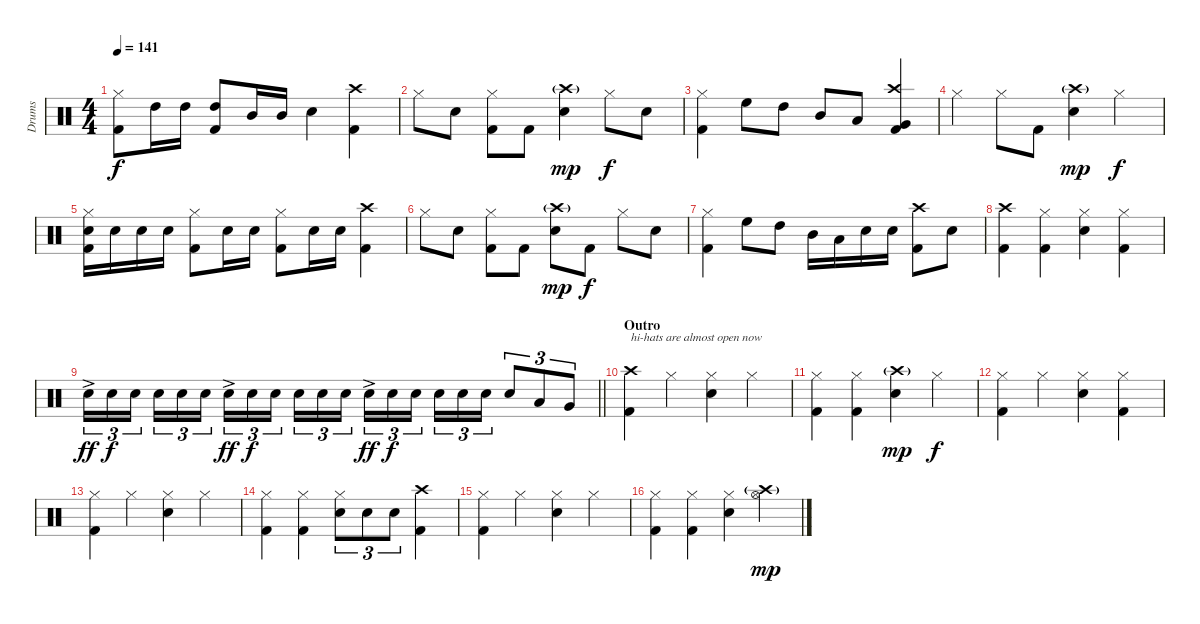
\track ("Drums" "Drums") {instrument percussion}
\staff {score}
\articulation defaults
\ts (4 4)
\tempo 141
\clef neutral
\ks c
("Hi-Hat (closed)" "Kick (hit) 2").8{dy f} "High Tom (hit)".16 "High Tom (hit)".16 ("High Tom (hit)" "Kick (hit) 2").8 "Mid Tom (hit)".16 "Mid Tom (hit)".16 "Electric Snare (hit)".4 ("Crash high (hit)" "Kick (hit) 2").4 |
"Hi-Hat (closed)".8 "Electric Snare (hit)".8 ("Hi-Hat (closed)" "Kick (hit) 2").8 "Kick (hit) 2".8 ("Crash high (hit)"{g} "Electric Snare (hit)").4{dy mp} "Hi-Hat (closed)".8{dy f} "Electric Snare (hit)".8 |
("Hi-Hat (closed)" "Kick (hit) 2").4 "High Floor Tom (hit)".8 "High Tom (hit)".8 "Mid Tom (hit)".8 "Low Tom (hit)".8 ("Crash high (hit)" "Very Low Tom (hit)" "Kick (hit) 2").4 |
"Hi-Hat (closed)".4 "Hi-Hat (closed)".8 "Kick (hit) 2".8 ("Crash high (hit)"{g} "Electric Snare (hit)").4{dy mp} "Hi-Hat (closed)".4{dy f} |
("Hi-Hat (closed)" "Electric Snare (hit)" "Kick (hit) 2").16 "Electric Snare (hit)".16 "Electric Snare (hit)".16 "Electric Snare (hit)".16 ("Hi-Hat (closed)" "Kick (hit) 2").8 "Electric Snare (hit)".16 "Electric Snare (hit)".16 ("Hi-Hat (closed)" "Kick (hit) 2").8 "Electric Snare (hit)".16 "Electric Snare (hit)".16 ("Crash high (hit)" "Kick (hit) 2").4 |
"Hi-Hat (closed)".8 "Electric Snare (hit)".8 ("Hi-Hat (closed)" "Kick (hit) 2").8 "Kick (hit) 2".8 ("Crash high (hit)"{g} "Electric Snare (hit)").8{dy mp} "Kick (hit) 2".8{dy f} "Hi-Hat (closed)".8 "Electric Snare (hit)".8 |
("Hi-Hat (closed)" "Kick (hit) 2").4 "High Floor Tom (hit)".8 "High Tom (hit)".8 "Mid Tom (hit)".16 "Low Tom (hit)".16 "Electric Snare (hit)".16 "Electric Snare (hit)".16 ("Crash high (hit)" "Kick (hit) 2").8 "Electric Snare (hit)".8 |
("Crash high (hit)" "Kick (hit) 2").4 ("Hi-Hat (closed)" "Kick (hit) 2").4 ("Hi-Hat (closed)" "Electric Snare (hit)").4 ("Hi-Hat (closed)" "Kick (hit) 2").4 |
\barLineRight lightlight "Electric Snare (hit)"{ac}.16{tu (3 2) dy ff} "Electric Snare (hit)".16{tu (3 2) dy f} "Electric Snare (hit)".16{tu (3 2) beam splitsecondary} "Electric Snare (hit)".16{tu (3 2)} "Electric Snare (hit)".16{tu (3 2)} "Electric Snare (hit)".16{tu (3 2)} "Electric Snare (hit)"{ac}.16{tu (3 2) dy ff} "Electric Snare (hit)".16{tu (3 2) dy f} "Electric Snare (hit)".16{tu (3 2) beam splitsecondary} "Electric Snare (hit)".16{tu (3 2)} "Electric Snare (hit)".16{tu (3 2)} "Electric Snare (hit)".16{tu (3 2)} "Electric Snare (hit)"{ac}.16{tu (3 2) dy ff} "Electric Snare (hit)".16{tu (3 2) dy f} "Electric Snare (hit)".16{tu (3 2) beam splitsecondary} "Electric Snare (hit)".16{tu (3 2)} "Electric Snare (hit)".16{tu (3 2)} "Electric Snare (hit)".16{tu (3 2)} "Electric Snare (hit)".8{tu (3 2)} "Low Tom (hit)".8{tu (3 2)} "Very Low Tom (hit)".8{tu (3 2)}
|
\section ("" "Outro")
("Crash high (hit)" "Kick (hit) 2").4{txt "hi-hats are almost open now" volume 6} "Hi-Hat (closed)".4 ("Hi-Hat (closed)" "Electric Snare (hit)").4 "Hi-Hat (closed)".4 |
("Hi-Hat (closed)" "Kick (hit) 2").4 ("Hi-Hat (closed)" "Kick (hit) 2").4 ("Crash high (hit)"{g} "Electric Snare (hit)").4{dy mp} "Hi-Hat (closed)".4{dy f} |
("Hi-Hat (closed)" "Kick (hit) 2").4 "Hi-Hat (closed)".4 ("Hi-Hat (closed)" "Electric Snare (hit)").4 ("Hi-Hat (closed)" "Kick (hit) 2").4 |
("Hi-Hat (closed)" "Kick (hit) 2").4 "Hi-Hat (closed)".4 ("Hi-Hat (closed)" "Electric Snare (hit)").4 "Hi-Hat (closed)".4 |
("Hi-Hat (closed)" "Kick (hit) 2").4 ("Hi-Hat (closed)" "Kick (hit) 2").4 ("Hi-Hat (closed)" "Electric Snare (hit)").8{tu (3 2)} "Electric Snare (hit)".8{tu (3 2)} "Electric Snare (hit)".8{tu (3 2)} ("Crash high (hit)" "Kick (hit) 2").4 |
("Hi-Hat (closed)" "Kick (hit) 2").4 "Hi-Hat (closed)".4 ("Hi-Hat (closed)" "Electric Snare (hit)").4 "Hi-Hat (closed)".4 |
("Hi-Hat (closed)" "Kick (hit) 2").4 ("Hi-Hat (closed)" "Kick (hit) 2").4 ("Hi-Hat (closed)" "Electric Snare (hit)").4 ("Crash high (hit)"{g} "Hi-Hat (open)").4{dy mp}
